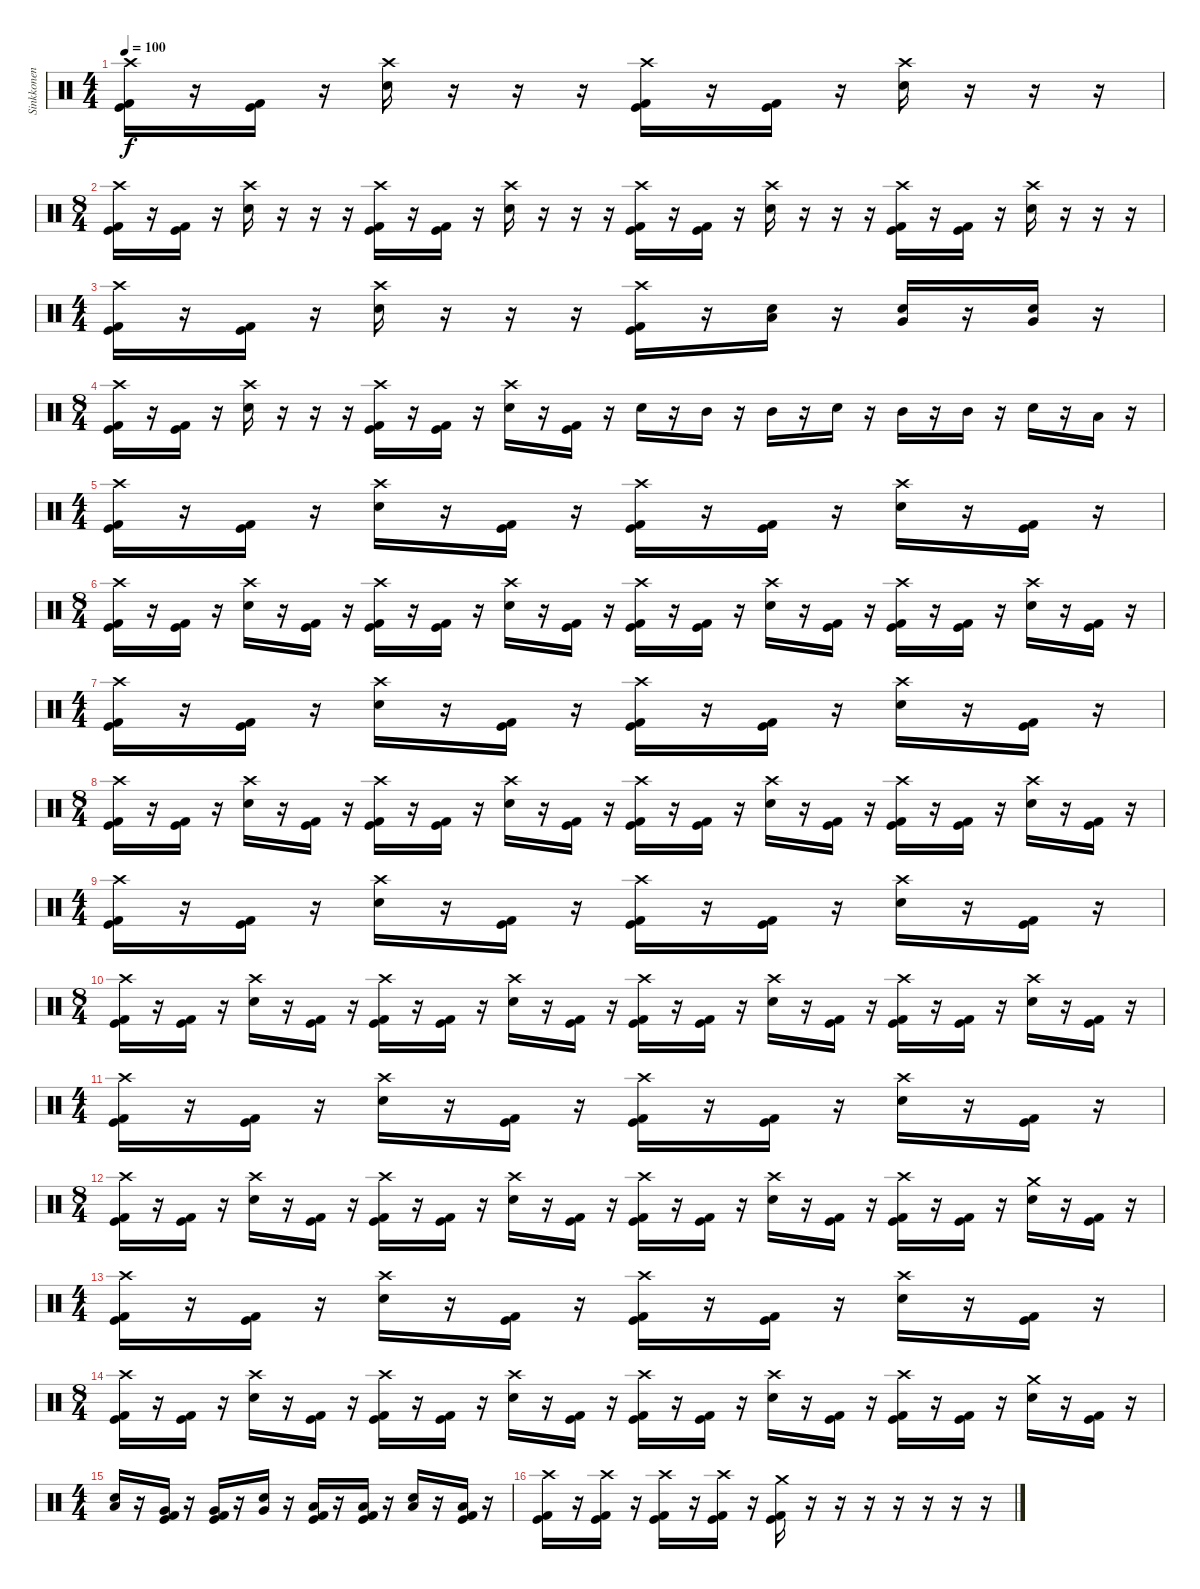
\track ("Sinkkonen" "Sinkkonen") {instrument percussion}
\staff {score}
\articulation defaults
\ts (4 4)
\tempo 100
\clef neutral
\ks c
("Crash high (hit)" "Kick (hit) 2" "Kick (hit)").16{dy f} r.16 ("Kick (hit) 2" "Kick (hit)").16 r.16 ("Crash high (hit)" "Electric Snare (hit)").16 r.16 r.16 r.16 ("Crash high (hit)" "Kick (hit) 2" "Kick (hit)").16 r.16 ("Kick (hit) 2" "Kick (hit)").16 r.16 ("Crash high (hit)" "Electric Snare (hit)").16 r.16 r.16 r.16 |
\ts (8 4)
("Crash high (hit)" "Kick (hit) 2" "Kick (hit)").16 r.16 ("Kick (hit) 2" "Kick (hit)").16 r.16 ("Crash high (hit)" "Electric Snare (hit)").16 r.16 r.16 r.16 ("Crash high (hit)" "Kick (hit) 2" "Kick (hit)").16 r.16 ("Kick (hit) 2" "Kick (hit)").16 r.16 ("Crash high (hit)" "Electric Snare (hit)").16 r.16 r.16 r.16 ("Crash high (hit)" "Kick (hit) 2" "Kick (hit)").16 r.16 ("Kick (hit) 2" "Kick (hit)").16 r.16 ("Crash high (hit)" "Electric Snare (hit)").16 r.16 r.16 r.16 ("Crash high (hit)" "Kick (hit) 2" "Kick (hit)").16 r.16 ("Kick (hit) 2" "Kick (hit)").16 r.16 ("Crash high (hit)" "Electric Snare (hit)").16 r.16 r.16 r.16 |
\ts (4 4)
("Crash high (hit)" "Kick (hit) 2" "Kick (hit)").16 r.16 ("Kick (hit) 2" "Kick (hit)").16 r.16 ("Crash high (hit)" "Electric Snare (hit)").16 r.16 r.16 r.16 ("Crash high (hit)" "Kick (hit) 2" "Kick (hit)").16 r.16 ("Low Tom (hit)" "Electric Snare (hit)").16 r.16 ("Very Low Tom (hit)" "Electric Snare (hit)").16 r.16 ("Very Low Tom (hit)" "Electric Snare (hit)").16 r.16 |
\ts (8 4)
("Crash high (hit)" "Kick (hit) 2" "Kick (hit)").16 r.16 ("Kick (hit) 2" "Kick (hit)").16 r.16 ("Crash high (hit)" "Electric Snare (hit)").16 r.16 r.16 r.16 ("Crash high (hit)" "Kick (hit) 2" "Kick (hit)").16 r.16 ("Kick (hit) 2" "Kick (hit)").16 r.16 ("Crash high (hit)" "Electric Snare (hit)").16 r.16 ("Kick (hit) 2" "Kick (hit)").16 r.16 "Electric Snare (hit)".16 r.16 "Mid Tom (hit)".16 r.16 "Mid Tom (hit)".16 r.16 "Electric Snare (hit)".16 r.16 "Mid Tom (hit)".16 r.16 "Mid Tom (hit)".16 r.16 "Electric Snare (hit)".16 r.16 "Low Tom (hit)".16 r.16 |
\ts (4 4)
("Crash high (hit)" "Kick (hit) 2" "Kick (hit)").16 r.16 ("Kick (hit) 2" "Kick (hit)").16 r.16 ("Crash high (hit)" "Electric Snare (hit)").16 r.16 ("Kick (hit) 2" "Kick (hit)").16 r.16 ("Crash high (hit)" "Kick (hit) 2" "Kick (hit)").16 r.16 ("Kick (hit) 2" "Kick (hit)").16 r.16 ("Crash high (hit)" "Electric Snare (hit)").16 r.16 ("Kick (hit) 2" "Kick (hit)").16 r.16 |
\ts (8 4)
("Crash high (hit)" "Kick (hit) 2" "Kick (hit)").16 r.16 ("Kick (hit) 2" "Kick (hit)").16 r.16 ("Crash high (hit)" "Electric Snare (hit)").16 r.16 ("Kick (hit) 2" "Kick (hit)").16 r.16 ("Crash high (hit)" "Kick (hit) 2" "Kick (hit)").16 r.16 ("Kick (hit) 2" "Kick (hit)").16 r.16 ("Crash high (hit)" "Electric Snare (hit)").16 r.16 ("Kick (hit) 2" "Kick (hit)").16 r.16 ("Crash high (hit)" "Kick (hit) 2" "Kick (hit)").16 r.16 ("Kick (hit) 2" "Kick (hit)").16 r.16 ("Crash high (hit)" "Electric Snare (hit)").16 r.16 ("Kick (hit) 2" "Kick (hit)").16 r.16 ("Crash high (hit)" "Kick (hit) 2" "Kick (hit)").16 r.16 ("Kick (hit) 2" "Kick (hit)").16 r.16 ("Crash high (hit)" "Electric Snare (hit)").16 r.16 ("Kick (hit) 2" "Kick (hit)").16 r.16 |
\ts (4 4)
("Crash high (hit)" "Kick (hit) 2" "Kick (hit)").16 r.16 ("Kick (hit) 2" "Kick (hit)").16 r.16 ("Crash high (hit)" "Electric Snare (hit)").16 r.16 ("Kick (hit) 2" "Kick (hit)").16 r.16 ("Crash high (hit)" "Kick (hit) 2" "Kick (hit)").16 r.16 ("Kick (hit) 2" "Kick (hit)").16 r.16 ("Crash high (hit)" "Electric Snare (hit)").16 r.16 ("Kick (hit) 2" "Kick (hit)").16 r.16 |
\ts (8 4)
("Crash high (hit)" "Kick (hit) 2" "Kick (hit)").16 r.16 ("Kick (hit) 2" "Kick (hit)").16 r.16 ("Crash high (hit)" "Electric Snare (hit)").16 r.16 ("Kick (hit) 2" "Kick (hit)").16 r.16 ("Crash high (hit)" "Kick (hit) 2" "Kick (hit)").16 r.16 ("Kick (hit) 2" "Kick (hit)").16 r.16 ("Crash high (hit)" "Electric Snare (hit)").16 r.16 ("Kick (hit) 2" "Kick (hit)").16 r.16 ("Crash high (hit)" "Kick (hit) 2" "Kick (hit)").16 r.16 ("Kick (hit) 2" "Kick (hit)").16 r.16 ("Crash high (hit)" "Electric Snare (hit)").16 r.16 ("Kick (hit) 2" "Kick (hit)").16 r.16 ("Crash high (hit)" "Kick (hit) 2" "Kick (hit)").16 r.16 ("Kick (hit) 2" "Kick (hit)").16 r.16 ("Crash high (hit)" "Electric Snare (hit)").16 r.16 ("Kick (hit) 2" "Kick (hit)").16 r.16 |
\ts (4 4)
("Crash high (hit)" "Kick (hit) 2" "Kick (hit)").16 r.16 ("Kick (hit) 2" "Kick (hit)").16 r.16 ("Crash high (hit)" "Electric Snare (hit)").16 r.16 ("Kick (hit) 2" "Kick (hit)").16 r.16 ("Crash high (hit)" "Kick (hit) 2" "Kick (hit)").16 r.16 ("Kick (hit) 2" "Kick (hit)").16 r.16 ("Crash high (hit)" "Electric Snare (hit)").16 r.16 ("Kick (hit) 2" "Kick (hit)").16 r.16 |
\ts (8 4)
("Crash high (hit)" "Kick (hit) 2" "Kick (hit)").16 r.16 ("Kick (hit) 2" "Kick (hit)").16 r.16 ("Crash high (hit)" "Electric Snare (hit)").16 r.16 ("Kick (hit) 2" "Kick (hit)").16 r.16 ("Crash high (hit)" "Kick (hit) 2" "Kick (hit)").16 r.16 ("Kick (hit) 2" "Kick (hit)").16 r.16 ("Crash high (hit)" "Electric Snare (hit)").16 r.16 ("Kick (hit) 2" "Kick (hit)").16 r.16 ("Crash high (hit)" "Kick (hit) 2" "Kick (hit)").16 r.16 ("Kick (hit) 2" "Kick (hit)").16 r.16 ("Crash high (hit)" "Electric Snare (hit)").16 r.16 ("Kick (hit) 2" "Kick (hit)").16 r.16 ("Crash high (hit)" "Kick (hit) 2" "Kick (hit)").16 r.16 ("Kick (hit) 2" "Kick (hit)").16 r.16 ("Crash high (hit)" "Electric Snare (hit)").16 r.16 ("Kick (hit) 2" "Kick (hit)").16 r.16 |
\ts (4 4)
("Crash high (hit)" "Kick (hit) 2" "Kick (hit)").16 r.16 ("Kick (hit) 2" "Kick (hit)").16 r.16 ("Crash high (hit)" "Electric Snare (hit)").16 r.16 ("Kick (hit) 2" "Kick (hit)").16 r.16 ("Crash high (hit)" "Kick (hit) 2" "Kick (hit)").16 r.16 ("Kick (hit) 2" "Kick (hit)").16 r.16 ("Crash high (hit)" "Electric Snare (hit)").16 r.16 ("Kick (hit) 2" "Kick (hit)").16 r.16 |
\ts (8 4)
("Crash high (hit)" "Kick (hit) 2" "Kick (hit)").16 r.16 ("Kick (hit) 2" "Kick (hit)").16 r.16 ("Crash high (hit)" "Electric Snare (hit)").16 r.16 ("Kick (hit) 2" "Kick (hit)").16 r.16 ("Crash high (hit)" "Kick (hit) 2" "Kick (hit)").16 r.16 ("Kick (hit) 2" "Kick (hit)").16 r.16 ("Crash high (hit)" "Electric Snare (hit)").16 r.16 ("Kick (hit) 2" "Kick (hit)").16 r.16 ("Crash high (hit)" "Kick (hit) 2" "Kick (hit)").16 r.16 ("Kick (hit) 2" "Kick (hit)").16 r.16 ("Crash high (hit)" "Electric Snare (hit)").16 r.16 ("Kick (hit) 2" "Kick (hit)").16 r.16 ("Crash high (hit)" "Kick (hit) 2" "Kick (hit)").16 r.16 ("Kick (hit) 2" "Kick (hit)").16 r.16 ("Crash medium (hit)" "Electric Snare (hit)").16 r.16 ("Kick (hit) 2" "Kick (hit)").16 r.16 |
\ts (4 4)
("Crash high (hit)" "Kick (hit) 2" "Kick (hit)").16 r.16 ("Kick (hit) 2" "Kick (hit)").16 r.16 ("Crash high (hit)" "Electric Snare (hit)").16 r.16 ("Kick (hit) 2" "Kick (hit)").16 r.16 ("Crash high (hit)" "Kick (hit) 2" "Kick (hit)").16 r.16 ("Kick (hit) 2" "Kick (hit)").16 r.16 ("Crash high (hit)" "Electric Snare (hit)").16 r.16 ("Kick (hit) 2" "Kick (hit)").16 r.16 |
\ts (8 4)
("Crash high (hit)" "Kick (hit) 2" "Kick (hit)").16 r.16 ("Kick (hit) 2" "Kick (hit)").16 r.16 ("Crash high (hit)" "Electric Snare (hit)").16 r.16 ("Kick (hit) 2" "Kick (hit)").16 r.16 ("Crash high (hit)" "Kick (hit) 2" "Kick (hit)").16 r.16 ("Kick (hit) 2" "Kick (hit)").16 r.16 ("Crash high (hit)" "Electric Snare (hit)").16 r.16 ("Kick (hit) 2" "Kick (hit)").16 r.16 ("Crash high (hit)" "Kick (hit) 2" "Kick (hit)").16 r.16 ("Kick (hit) 2" "Kick (hit)").16 r.16 ("Crash high (hit)" "Electric Snare (hit)").16 r.16 ("Kick (hit) 2" "Kick (hit)").16 r.16 ("Crash high (hit)" "Kick (hit) 2" "Kick (hit)").16 r.16 ("Kick (hit) 2" "Kick (hit)").16 r.16 ("Crash medium (hit)" "Electric Snare (hit)").16 r.16 ("Kick (hit) 2" "Kick (hit)").16 r.16 |
\ts (4 4)
("Low Tom (hit)" "Electric Snare (hit)").16 r.16 ("Very Low Tom (hit)" "Kick (hit) 2" "Kick (hit)").16 r.16 ("Very Low Tom (hit)" "Kick (hit) 2" "Kick (hit)").16 r.16 ("Very Low Tom (hit)" "Electric Snare (hit)").16 r.16 ("Low Floor Tom (hit)" "Kick (hit) 2" "Kick (hit)").16 r.16 ("Low Floor Tom (hit)" "Kick (hit) 2" "Kick (hit)").16 r.16 ("Low Floor Tom (hit)" "Electric Snare (hit)").16 r.16 ("Low Floor Tom (hit)" "Kick (hit) 2" "Kick (hit)").16 r.16 |
("Crash high (hit)" "Kick (hit) 2" "Kick (hit)").16 r.16 ("Crash high (hit)" "Kick (hit) 2" "Kick (hit)").16 r.16 ("Crash high (hit)" "Kick (hit) 2" "Kick (hit)").16 r.16 ("Crash high (hit)" "Kick (hit) 2" "Kick (hit)").16 r.16 ("Crash medium (hit)" "Kick (hit) 2" "Kick (hit)").16 r.16 r.16 r.16 r.16 r.16 r.16 r.16
